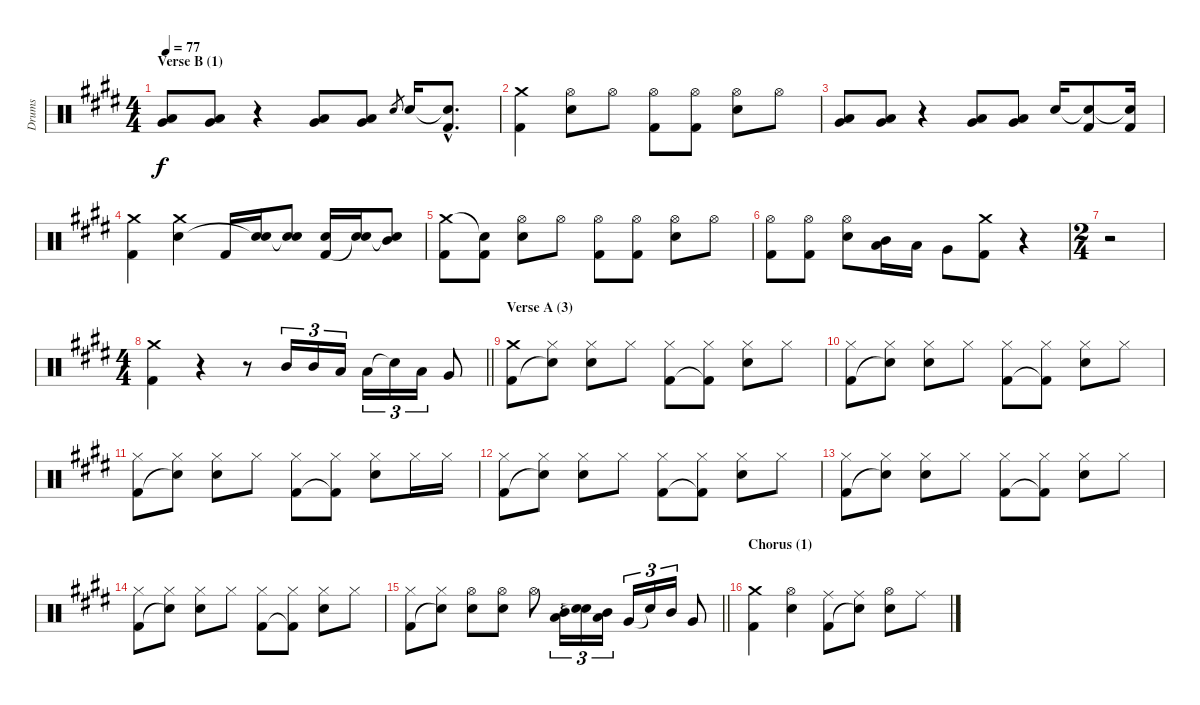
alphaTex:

\track ("Drums" "Drums") {instrument percussion}
\staff {score}
\articulation defaults
\ts (4 4)
\section ("" "Verse B (1)")
\tempo 77
\clef neutral
\ks e
("Very Low Tom (hit)" "Low Floor Tom (hit)").8{dy f} ("Very Low Tom (hit)" "Low Floor Tom (hit)").8 r.4 ("Very Low Tom (hit)" "Low Floor Tom (hit)").8 ("Very Low Tom (hit)" "Low Floor Tom (hit)").8 "Electric Snare (hit)".8{gr} "Electric Snare (hit)".16 ("Snare (hit)"{hac t} "Kick (hit) 2"{hac}).8{d} |
("Crash medium (hit)" "Kick (hit) 2").4 ("Hi-Hat (open)" "Electric Snare (hit)").8 "Hi-Hat (open)".8 ("Hi-Hat (open)" "Kick (hit) 2").8 ("Hi-Hat (open)" "Kick (hit) 2").8 ("Hi-Hat (open)" "Electric Snare (hit)").8 "Hi-Hat (open)".8 |
("Very Low Tom (hit)" "Low Floor Tom (hit)").8 ("Very Low Tom (hit)" "Low Floor Tom (hit)").8 r.4 ("Very Low Tom (hit)" "Low Floor Tom (hit)").8 ("Very Low Tom (hit)" "Low Floor Tom (hit)").8 "Electric Snare (hit)".16 ("Snare (hit)"{t} "Kick (hit) 2").8 ("Snare (hit)"{t} "Kick (hit) 2").16 |
("Crash medium (hit)" "Kick (hit) 2").4 ("Crash medium (hit)" "Electric Snare (hit)").4 "Kick (hit) 2".16 ("Electric Snare (hit)" "Snare (hit)"{t}).16 ("Electric Snare (hit)" "Snare (hit)"{t}).8 ("Electric Snare (hit)" "Kick (hit) 2").16 ("Electric Snare (hit)" "Snare (hit)"{t}).16 ("Mid Tom (hit)" "Snare (hit)"{t}).8 |
("Crash medium (hit)" "Kick (hit) 2").8 ("Snare (hit)"{t} "Kick (hit) 2").8 ("Hi-Hat (open)" "Electric Snare (hit)").8 "Hi-Hat (open)".8 ("Hi-Hat (open)" "Kick (hit) 2").8 ("Hi-Hat (open)" "Kick (hit) 2").8 ("Hi-Hat (open)" "Electric Snare (hit)").8 "Hi-Hat (open)".8 |
("Hi-Hat (open)" "Kick (hit) 2").8 ("Hi-Hat (open)" "Kick (hit) 2").8 ("Hi-Hat (open)" "Electric Snare (hit)").8 ("Mid Tom (hit)" "Low Tom (hit)").16 "Low Tom (hit)".16 "Very Low Tom (hit)".8 ("Crash medium (hit)" "Kick (hit) 2").8 r.4 |
\ts (2 4)
r.2 |
\ts (4 4)
\barLineRight lightlight
("Crash medium (hit)" "Kick (hit) 2").4 r.4 r.8 "Mid Tom (hit)".16{tu (3 2)} "Mid Tom (hit)".16{tu (3 2)} "Low Tom (hit)".16{tu (3 2)} "Low Tom (hit)".16{tu (3 2)} "Snare (hit)"{t}.16{tu (3 2)} "Low Tom (hit)".16{tu (3 2)} "Very Low Tom (hit)".8 |
\section ("" "Verse A (3)")
("Crash medium (hit)" "Kick (hit) 2").8 ("Hi-Hat (closed)" "Snare (hit)"{t}).8 ("Hi-Hat (closed)" "Electric Snare (hit)").8 "Hi-Hat (closed)".8 ("Hi-Hat (closed)" "Kick (hit) 2").8 ("Hi-Hat (closed)" "Kick (hit) 2"{t}).8 ("Hi-Hat (closed)" "Electric Snare (hit)").8 "Hi-Hat (closed)".8 |
("Hi-Hat (closed)" "Kick (hit) 2").8 ("Hi-Hat (closed)" "Snare (hit)"{t}).8 ("Hi-Hat (closed)" "Electric Snare (hit)").8 "Hi-Hat (closed)".8 ("Hi-Hat (closed)" "Kick (hit) 2").8 ("Hi-Hat (closed)" "Kick (hit) 2"{t}).8 ("Hi-Hat (closed)" "Electric Snare (hit)").8 "Hi-Hat (closed)".8 |
("Hi-Hat (closed)" "Kick (hit) 2").8 ("Hi-Hat (closed)" "Snare (hit)"{t}).8 ("Hi-Hat (closed)" "Electric Snare (hit)").8 "Hi-Hat (closed)".8 ("Hi-Hat (closed)" "Kick (hit) 2").8 ("Hi-Hat (closed)" "Kick (hit) 2"{t}).8 ("Hi-Hat (closed)" "Electric Snare (hit)").8 "Hi-Hat (closed)".16 "Hi-Hat (closed)".16 |
("Hi-Hat (closed)" "Kick (hit) 2").8 ("Hi-Hat (closed)" "Snare (hit)"{t}).8 ("Hi-Hat (closed)" "Electric Snare (hit)").8 "Hi-Hat (closed)".8 ("Hi-Hat (closed)" "Kick (hit) 2").8 ("Hi-Hat (closed)" "Kick (hit) 2"{t}).8 ("Hi-Hat (closed)" "Electric Snare (hit)").8 "Hi-Hat (closed)".8 |
("Hi-Hat (closed)" "Kick (hit) 2").8 ("Hi-Hat (closed)" "Snare (hit)"{t}).8 ("Hi-Hat (closed)" "Electric Snare (hit)").8 "Hi-Hat (closed)".8 ("Hi-Hat (closed)" "Kick (hit) 2").8 ("Hi-Hat (closed)" "Kick (hit) 2"{t}).8 ("Hi-Hat (closed)" "Electric Snare (hit)").8 "Hi-Hat (closed)".8 |
("Hi-Hat (closed)" "Kick (hit) 2").8 ("Hi-Hat (closed)" "Snare (hit)"{t}).8 ("Hi-Hat (closed)" "Electric Snare (hit)").8 "Hi-Hat (closed)".8 ("Hi-Hat (closed)" "Kick (hit) 2").8 ("Hi-Hat (closed)" "Kick (hit) 2"{t}).8 ("Hi-Hat (closed)" "Electric Snare (hit)").8 "Hi-Hat (closed)".8 |
\barLineRight lightlight
("Hi-Hat (closed)" "Kick (hit) 2").8 ("Hi-Hat (closed)" "Snare (hit)"{t}).8 ("Hi-Hat (open)" "Electric Snare (hit)").8 ("Hi-Hat (open)" "Electric Snare (hit)").8 "Hi-Hat (open)".8 ("Mid Tom (hit)" "Low Tom (hit)").16{tu (3 2)} ("Snare (hit)"{t} "Snare (hit)"{t}).16{tu (3 2)} ("Mid Tom (hit)" "Low Tom (hit)").16{tu (3 2)} "Very Low Tom (hit)".16{tu (3 2)} "Snare (hit)"{t}.16{tu (3 2)} "Mid Tom (hit)".16{tu (3 2)} "Very Low Tom (hit)".8 |
\section ("" "Chorus (1)")
("Crash medium (hit)" "Kick (hit) 2").4 ("Hi-Hat (open)" "Electric Snare (hit)").4 ("Ride (middle)" "Kick (hit) 2").8 ("Ride (middle)" "Snare (hit)"{t}).8 ("Hi-Hat (open)" "Electric Snare (hit)").8 "Ride (middle)".8
